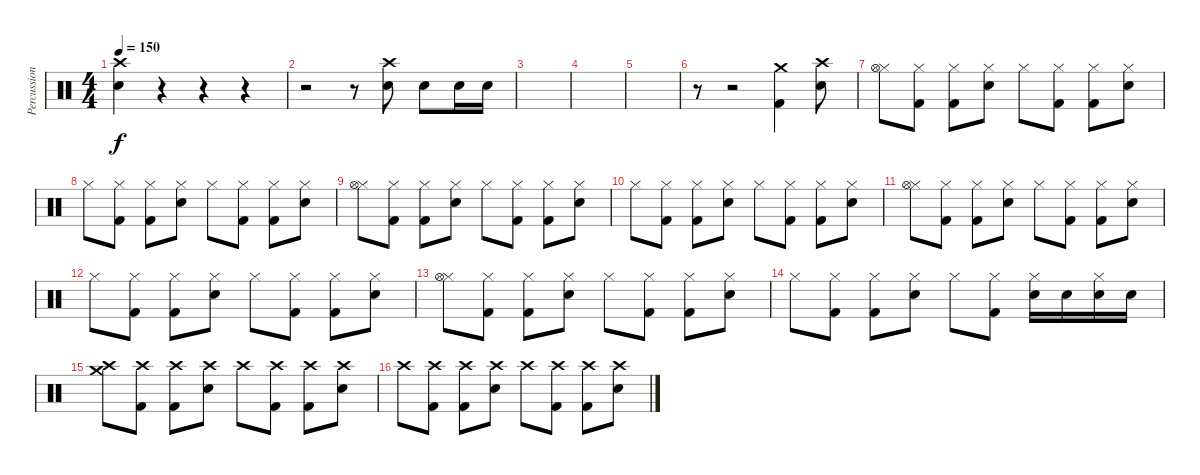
\track ("Percussioni" "Percussion") {instrument percussion}
\staff {score}
\articulation defaults
\ts (4 4)
\tempo 150
\clef neutral
\ks c
("Snare (hit) 2" "Crash high (hit)").4{dy f} r.4 r.4 r.4 |
r.2 r.8 ("Crash high (hit)" "Snare (hit) 2").8 "Snare (hit) 2".8 "Snare (hit) 2".16 "Snare (hit) 2".16 |
|
|
|
r.8 r.2 ("Crash medium (hit)" "Kick (hit) 2").4 ("Crash high (hit)" "Snare (hit) 2").8 |
("Hi-Hat (closed)" "Hi-Hat (open)").8 ("Hi-Hat (closed)" "Kick (hit) 2").8 ("Hi-Hat (closed)" "Kick (hit) 2").8 ("Hi-Hat (closed)" "Snare (hit) 2").8 "Hi-Hat (closed)".8 ("Hi-Hat (closed)" "Kick (hit) 2").8 ("Hi-Hat (closed)" "Kick (hit) 2").8 ("Hi-Hat (closed)" "Snare (hit) 2").8 |
"Hi-Hat (closed)".8 ("Hi-Hat (closed)" "Kick (hit) 2").8 ("Hi-Hat (closed)" "Kick (hit) 2").8 ("Hi-Hat (closed)" "Snare (hit) 2").8 "Hi-Hat (closed)".8 ("Hi-Hat (closed)" "Kick (hit) 2").8 ("Hi-Hat (closed)" "Kick (hit) 2").8 ("Hi-Hat (closed)" "Snare (hit) 2").8 |
("Hi-Hat (closed)" "Hi-Hat (open)").8 ("Hi-Hat (closed)" "Kick (hit) 2").8 ("Hi-Hat (closed)" "Kick (hit) 2").8 ("Hi-Hat (closed)" "Snare (hit) 2").8 "Hi-Hat (closed)".8 ("Hi-Hat (closed)" "Kick (hit) 2").8 ("Hi-Hat (closed)" "Kick (hit) 2").8 ("Hi-Hat (closed)" "Snare (hit) 2").8 |
"Hi-Hat (closed)".8 ("Hi-Hat (closed)" "Kick (hit) 2").8 ("Hi-Hat (closed)" "Kick (hit) 2").8 ("Hi-Hat (closed)" "Snare (hit) 2").8 "Hi-Hat (closed)".8 ("Hi-Hat (closed)" "Kick (hit) 2").8 ("Hi-Hat (closed)" "Kick (hit) 2").8 ("Hi-Hat (closed)" "Snare (hit) 2").8 |
("Hi-Hat (closed)" "Hi-Hat (open)").8 ("Hi-Hat (closed)" "Kick (hit) 2").8 ("Hi-Hat (closed)" "Kick (hit) 2").8 ("Hi-Hat (closed)" "Snare (hit) 2").8 "Hi-Hat (closed)".8 ("Hi-Hat (closed)" "Kick (hit) 2").8 ("Hi-Hat (closed)" "Kick (hit) 2").8 ("Hi-Hat (closed)" "Snare (hit) 2").8 |
"Hi-Hat (closed)".8 ("Hi-Hat (closed)" "Kick (hit) 2").8 ("Hi-Hat (closed)" "Kick (hit) 2").8 ("Hi-Hat (closed)" "Snare (hit) 2").8 "Hi-Hat (closed)".8 ("Hi-Hat (closed)" "Kick (hit) 2").8 ("Hi-Hat (closed)" "Kick (hit) 2").8 ("Hi-Hat (closed)" "Snare (hit) 2").8 |
("Hi-Hat (closed)" "Hi-Hat (open)").8 ("Hi-Hat (closed)" "Kick (hit) 2").8 ("Hi-Hat (closed)" "Kick (hit) 2").8 ("Hi-Hat (closed)" "Snare (hit) 2").8 "Hi-Hat (closed)".8 ("Hi-Hat (closed)" "Kick (hit) 2").8 ("Hi-Hat (closed)" "Kick (hit) 2").8 ("Hi-Hat (closed)" "Snare (hit) 2").8 |
"Hi-Hat (closed)".8 ("Hi-Hat (closed)" "Kick (hit) 2").8 ("Hi-Hat (closed)" "Kick (hit) 2").8 ("Hi-Hat (closed)" "Snare (hit) 2").8 "Hi-Hat (closed)".8 ("Hi-Hat (closed)" "Kick (hit) 2").8 ("Hi-Hat (closed)" "Snare (hit) 2").16 "Snare (hit) 2".16 ("Hi-Hat (closed)" "Snare (hit) 2").16 "Snare (hit) 2".16 |
("Crash high (hit)" "Crash medium (hit)").8 ("Crash high (hit)" "Kick (hit) 2").8 ("Crash high (hit)" "Kick (hit) 2").8 ("Crash high (hit)" "Snare (hit) 2").8 "Crash high (hit)".8 ("Crash high (hit)" "Kick (hit) 2").8 ("Crash high (hit)" "Kick (hit) 2").8 ("Crash high (hit)" "Snare (hit) 2").8 |
"Crash high (hit)".8 ("Crash high (hit)" "Kick (hit) 2").8 ("Crash high (hit)" "Kick (hit) 2").8 ("Crash high (hit)" "Snare (hit) 2").8 "Crash high (hit)".8 ("Crash high (hit)" "Kick (hit) 2").8 ("Crash high (hit)" "Kick (hit) 2").8 ("Crash high (hit)" "Snare (hit) 2").8
